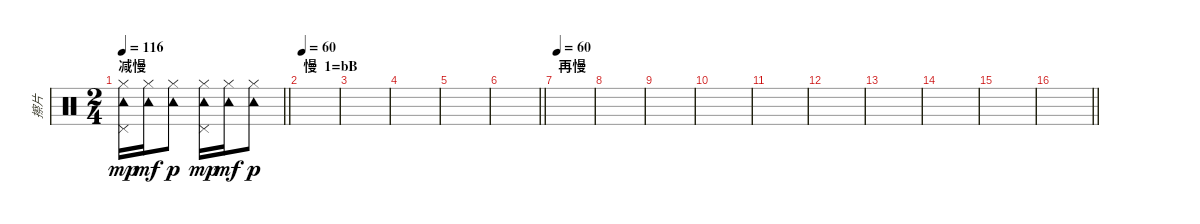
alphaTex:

\track ("擦片" "擦片") {instrument percussion}
\staff {score}
\articulation defaults
\ts (2 4)
\section ("" "减慢")
\tempo 116
\clef neutral
\barLineRight lightlight
\ks c
("Hi-Hat (closed)" "Tambourine (hit)" "Pedal Hi-Hat (hit)").16{dy mp} ("Hi-Hat (closed)" "Tambourine (hit)").16{dy mf} ("Hi-Hat (closed)" "Tambourine (hit)").8{dy p} ("Hi-Hat (closed)" "Tambourine (hit)" "Pedal Hi-Hat (hit)").16{dy mp} ("Hi-Hat (closed)" "Tambourine (hit)").16{dy mf} ("Hi-Hat (closed)" "Tambourine (hit)").8{dy p} |
\section ("" "慢  1=bB")
\tempo 60
|
|
|
|
\barLineRight lightlight
|
\section ("" "再慢")
\tempo 60
|
|
|
|
|
|
|
|
|
\barLineRight lightlight
